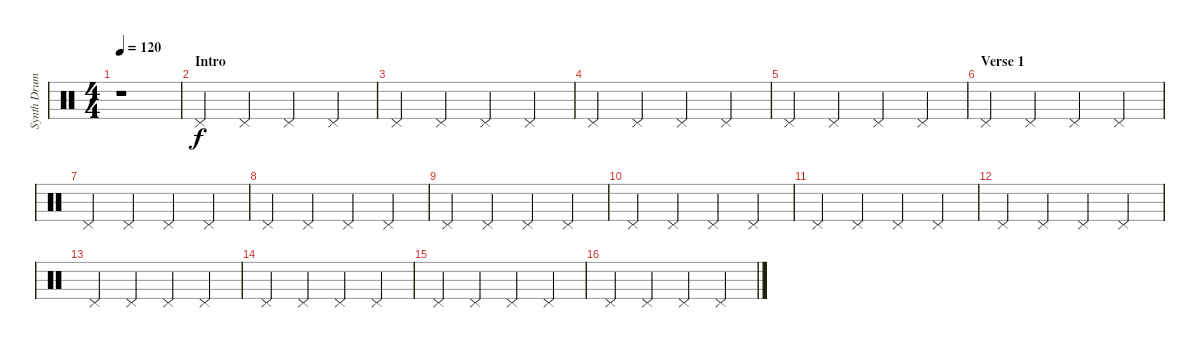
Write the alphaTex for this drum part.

\track ("Synth Drums hihat etc..." "Synth Drum") {instrument percussion}
\staff {score}
\articulation defaults
\ts (4 4)
\tempo 120
\clef neutral
\ks c
r.1{dy f} |
\section ("" "Intro")
"Pedal Hi-Hat (hit)".4 "Pedal Hi-Hat (hit)".4 "Pedal Hi-Hat (hit)".4 "Pedal Hi-Hat (hit)".4 |
"Pedal Hi-Hat (hit)".4 "Pedal Hi-Hat (hit)".4 "Pedal Hi-Hat (hit)".4 "Pedal Hi-Hat (hit)".4 |
"Pedal Hi-Hat (hit)".4 "Pedal Hi-Hat (hit)".4 "Pedal Hi-Hat (hit)".4 "Pedal Hi-Hat (hit)".4 |
"Pedal Hi-Hat (hit)".4 "Pedal Hi-Hat (hit)".4 "Pedal Hi-Hat (hit)".4 "Pedal Hi-Hat (hit)".4 |
\section ("" "Verse 1")
"Pedal Hi-Hat (hit)".4 "Pedal Hi-Hat (hit)".4 "Pedal Hi-Hat (hit)".4 "Pedal Hi-Hat (hit)".4 |
"Pedal Hi-Hat (hit)".4 "Pedal Hi-Hat (hit)".4 "Pedal Hi-Hat (hit)".4 "Pedal Hi-Hat (hit)".4 |
"Pedal Hi-Hat (hit)".4 "Pedal Hi-Hat (hit)".4 "Pedal Hi-Hat (hit)".4 "Pedal Hi-Hat (hit)".4 |
"Pedal Hi-Hat (hit)".4 "Pedal Hi-Hat (hit)".4 "Pedal Hi-Hat (hit)".4 "Pedal Hi-Hat (hit)".4 |
"Pedal Hi-Hat (hit)".4 "Pedal Hi-Hat (hit)".4 "Pedal Hi-Hat (hit)".4 "Pedal Hi-Hat (hit)".4 |
"Pedal Hi-Hat (hit)".4 "Pedal Hi-Hat (hit)".4 "Pedal Hi-Hat (hit)".4 "Pedal Hi-Hat (hit)".4 |
"Pedal Hi-Hat (hit)".4 "Pedal Hi-Hat (hit)".4 "Pedal Hi-Hat (hit)".4 "Pedal Hi-Hat (hit)".4 |
"Pedal Hi-Hat (hit)".4 "Pedal Hi-Hat (hit)".4 "Pedal Hi-Hat (hit)".4 "Pedal Hi-Hat (hit)".4 |
"Pedal Hi-Hat (hit)".4 "Pedal Hi-Hat (hit)".4 "Pedal Hi-Hat (hit)".4 "Pedal Hi-Hat (hit)".4 |
"Pedal Hi-Hat (hit)".4 "Pedal Hi-Hat (hit)".4 "Pedal Hi-Hat (hit)".4 "Pedal Hi-Hat (hit)".4 |
"Pedal Hi-Hat (hit)".4 "Pedal Hi-Hat (hit)".4 "Pedal Hi-Hat (hit)".4 "Pedal Hi-Hat (hit)".4
